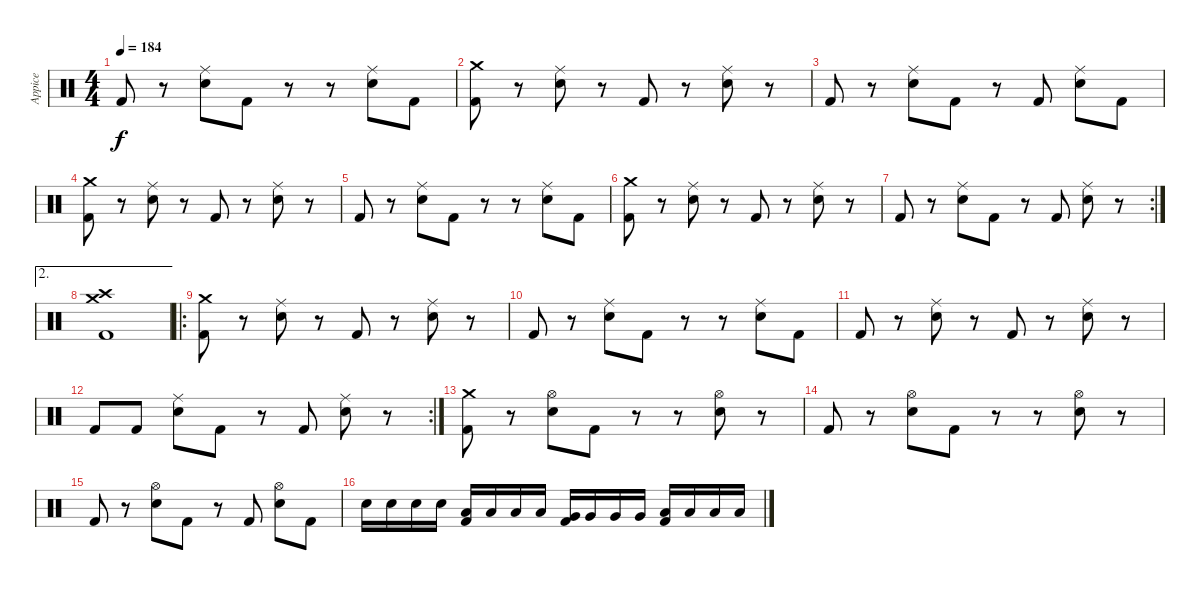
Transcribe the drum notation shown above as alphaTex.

\track ("Appice" "Appice") {instrument percussion}
\staff {score}
\articulation defaults
\ts (4 4)
\tempo 184
\clef neutral
\ks c "Kick (hit) 2".8{dy f}
r.8 ("Ride (middle)" "Snare (hit) 2").8 "Kick (hit) 2".8 r.8 r.8 ("Ride (middle)" "Snare (hit) 2").8 "Kick (hit) 2".8 |
("Crash medium (hit)" "Kick (hit) 2").8 r.8 ("Ride (middle)" "Snare (hit) 2").8 r.8 "Kick (hit) 2".8 r.8 ("Ride (middle)" "Snare (hit) 2").8 r.8 |
"Kick (hit) 2".8 r.8 ("Ride (middle)" "Snare (hit) 2").8 "Kick (hit) 2".8 r.8 "Kick (hit) 2".8 ("Ride (middle)" "Snare (hit) 2").8 "Kick (hit) 2".8 |
("Crash medium (hit)" "Kick (hit) 2").8 r.8 ("Ride (middle)" "Snare (hit) 2").8 r.8 "Kick (hit) 2".8 r.8 ("Ride (middle)" "Snare (hit) 2").8 r.8 |
"Kick (hit) 2".8 r.8 ("Ride (middle)" "Snare (hit) 2").8 "Kick (hit) 2".8 r.8 r.8 ("Ride (middle)" "Snare (hit) 2").8 "Kick (hit) 2".8 |
("Crash medium (hit)" "Kick (hit) 2").8 r.8 ("Ride (middle)" "Snare (hit) 2").8 r.8 "Kick (hit) 2".8 r.8 ("Ride (middle)" "Snare (hit) 2").8 r.8 |
\rc 2 "Kick (hit) 2".8
r.8 ("Ride (middle)" "Snare (hit) 2").8 "Kick (hit) 2".8 r.8 "Kick (hit) 2".8 ("Ride (middle)" "Snare (hit) 2").8 r.8 |
\ae 2
("Crash high (hit)" "Crash medium (hit)" "Kick (hit) 2").1 |
\ro
("Crash medium (hit)" "Kick (hit) 2").8 r.8 ("Ride (middle)" "Snare (hit) 2").8 r.8 "Kick (hit) 2".8 r.8 ("Ride (middle)" "Snare (hit) 2").8 r.8 |
"Kick (hit) 2".8 r.8 ("Ride (middle)" "Snare (hit) 2").8 "Kick (hit) 2".8 r.8 r.8 ("Ride (middle)" "Snare (hit) 2").8 "Kick (hit) 2".8 |
"Kick (hit) 2".8 r.8 ("Ride (middle)" "Snare (hit) 2").8 r.8 "Kick (hit) 2".8 r.8 ("Ride (middle)" "Snare (hit) 2").8 r.8 |
\rc 2 "Kick (hit) 2".8 "Kick (hit) 2".8
("Ride (middle)" "Snare (hit) 2").8 "Kick (hit) 2".8 r.8 "Kick (hit) 2".8 ("Ride (middle)" "Snare (hit) 2").8 r.8 |
("Crash medium (hit)" "Kick (hit) 2").8 r.8 ("Hi-Hat (open)" "Snare (hit) 2").8 "Kick (hit) 2".8 r.8 r.8 ("Hi-Hat (open)" "Snare (hit) 2").8 r.8 |
"Kick (hit) 2".8 r.8 ("Hi-Hat (open)" "Snare (hit) 2").8 "Kick (hit) 2".8 r.8 r.8 ("Hi-Hat (open)" "Snare (hit) 2").8 r.8 |
"Kick (hit) 2".8 r.8 ("Hi-Hat (open)" "Snare (hit) 2").8 "Kick (hit) 2".8 r.8 "Kick (hit) 2".8 ("Hi-Hat (open)" "Snare (hit) 2").8 "Kick (hit) 2".8 |
"Snare (hit) 2".16 "Snare (hit) 2".16 "Snare (hit) 2".16 "Snare (hit) 2".16 ("Low Tom (hit)" "Kick (hit) 2").16 "Low Tom (hit)".16 "Low Tom (hit)".16 "Low Tom (hit)".16 ("Very Low Tom (hit)" "Kick (hit) 2").16 "Very Low Tom (hit)".16 "Very Low Tom (hit)".16 "Very Low Tom (hit)".16 ("Low Floor Tom (hit)" "Kick (hit) 2").16 "Low Floor Tom (hit)".16 "Low Floor Tom (hit)".16 "Low Floor Tom (hit)".16
